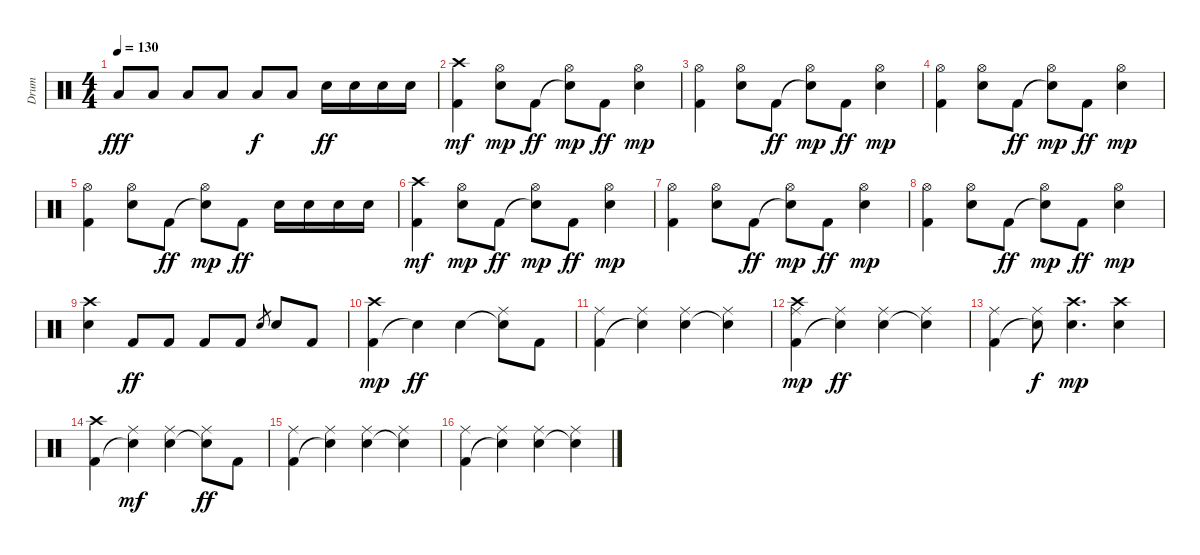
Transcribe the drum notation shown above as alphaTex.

\track ("Drum" "Drum") {instrument percussion}
\staff {score}
\articulation defaults
\ts (4 4)
\tempo 130
\clef neutral
\ks c "Low Tom (hit)".8{dy fff} "Low Tom (hit)".8 "Low Tom (hit)".8 "Low Tom (hit)".8 "Low Tom (hit)".8{dy f} "Low Tom (hit)".8 "Electric Snare (hit)".16{dy ff} "Electric Snare (hit)".16 "Electric Snare (hit)".16 "Electric Snare (hit)".16
|
("Kick (hit) 2" "Crash high (hit)").4{dy mf} ("Electric Snare (hit)" "Hi-Hat (open)").8{dy mp} "Kick (hit) 2".8{dy ff} ("Snare (hit)"{t} "Hi-Hat (open)").8{dy mp} "Kick (hit) 2".8{dy ff} ("Electric Snare (hit)" "Hi-Hat (open)").4{dy mp} |
("Kick (hit) 2" "Hi-Hat (open)").4 ("Electric Snare (hit)" "Hi-Hat (open)").8 "Kick (hit) 2".8{dy ff} ("Snare (hit)"{t} "Hi-Hat (open)").8{dy mp} "Kick (hit) 2".8{dy ff} ("Electric Snare (hit)" "Hi-Hat (open)").4{dy mp} |
("Kick (hit) 2" "Hi-Hat (open)").4 ("Electric Snare (hit)" "Hi-Hat (open)").8 "Kick (hit) 2".8{dy ff} ("Snare (hit)"{t} "Hi-Hat (open)").8{dy mp} "Kick (hit) 2".8{dy ff} ("Electric Snare (hit)" "Hi-Hat (open)").4{dy mp} |
("Kick (hit) 2" "Hi-Hat (open)").4 ("Electric Snare (hit)" "Hi-Hat (open)").8 "Kick (hit) 2".8{dy ff} ("Snare (hit)"{t} "Hi-Hat (open)").8{dy mp} "Kick (hit) 2".8{dy ff} "Electric Snare (hit)".16 "Electric Snare (hit)".16 "Electric Snare (hit)".16 "Electric Snare (hit)".16 |
("Kick (hit) 2" "Crash high (hit)").4{dy mf} ("Electric Snare (hit)" "Hi-Hat (open)").8{dy mp} "Kick (hit) 2".8{dy ff} ("Snare (hit)"{t} "Hi-Hat (open)").8{dy mp} "Kick (hit) 2".8{dy ff} ("Electric Snare (hit)" "Hi-Hat (open)").4{dy mp} |
("Kick (hit) 2" "Hi-Hat (open)").4 ("Electric Snare (hit)" "Hi-Hat (open)").8 "Kick (hit) 2".8{dy ff} ("Snare (hit)"{t} "Hi-Hat (open)").8{dy mp} "Kick (hit) 2".8{dy ff} ("Electric Snare (hit)" "Hi-Hat (open)").4{dy mp} |
("Kick (hit) 2" "Hi-Hat (open)").4 ("Electric Snare (hit)" "Hi-Hat (open)").8 "Kick (hit) 2".8{dy ff} ("Snare (hit)"{t} "Hi-Hat (open)").8{dy mp} "Kick (hit) 2".8{dy ff} ("Electric Snare (hit)" "Hi-Hat (open)").4{dy mp} |
("Electric Snare (hit)" "Crash high (hit)").4 "Kick (hit) 2".8{dy ff} "Kick (hit) 2".8 "Kick (hit) 2".8 "Kick (hit) 2".8 "Electric Snare (hit)".8{gr} "Electric Snare (hit)".8 "Kick (hit) 2".8 |
("Kick (hit) 2" "Crash high (hit)").4{dy mp} "Snare (hit)"{t}.4{dy ff} "Electric Snare (hit)".4 ("Snare (hit)"{t} "Ride (middle)").8 "Kick (hit) 2".8 |
("Kick (hit) 2" "Ride (middle)").4 ("Snare (hit)"{t} "Ride (middle)").4 ("Electric Snare (hit)" "Ride (middle)").4 ("Snare (hit)"{t} "Ride (middle)").4 |
("Kick (hit) 2" "Crash high (hit)" "Ride (middle)").4{dy mp} ("Snare (hit)"{t} "Ride (middle)").4{dy ff} ("Electric Snare (hit)" "Ride (middle)").4 ("Snare (hit)"{t} "Ride (middle)").4 |
("Kick (hit) 2" "Ride (middle)").4 ("Snare (hit)"{t} "Ride (middle)").8{dy f} ("Electric Snare (hit)" "Crash high (hit)").4{d dy mp} ("Electric Snare (hit)" "Crash high (hit)").4 |
("Kick (hit) 2" "Crash high (hit)").4 ("Snare (hit)"{t} "Ride (middle)").4{dy mf} ("Electric Snare (hit)" "Ride (middle)").4 ("Snare (hit)"{t} "Ride (middle)").8{dy ff} "Kick (hit) 2".8 |
("Kick (hit) 2" "Ride (middle)").4 ("Snare (hit)"{t} "Ride (middle)").4 ("Electric Snare (hit)" "Ride (middle)").4 ("Snare (hit)"{t} "Ride (middle)").4 |
("Kick (hit) 2" "Ride (middle)").4 ("Snare (hit)"{t} "Ride (middle)").4 ("Electric Snare (hit)" "Ride (middle)").4 ("Snare (hit)"{t} "Ride (middle)").4
